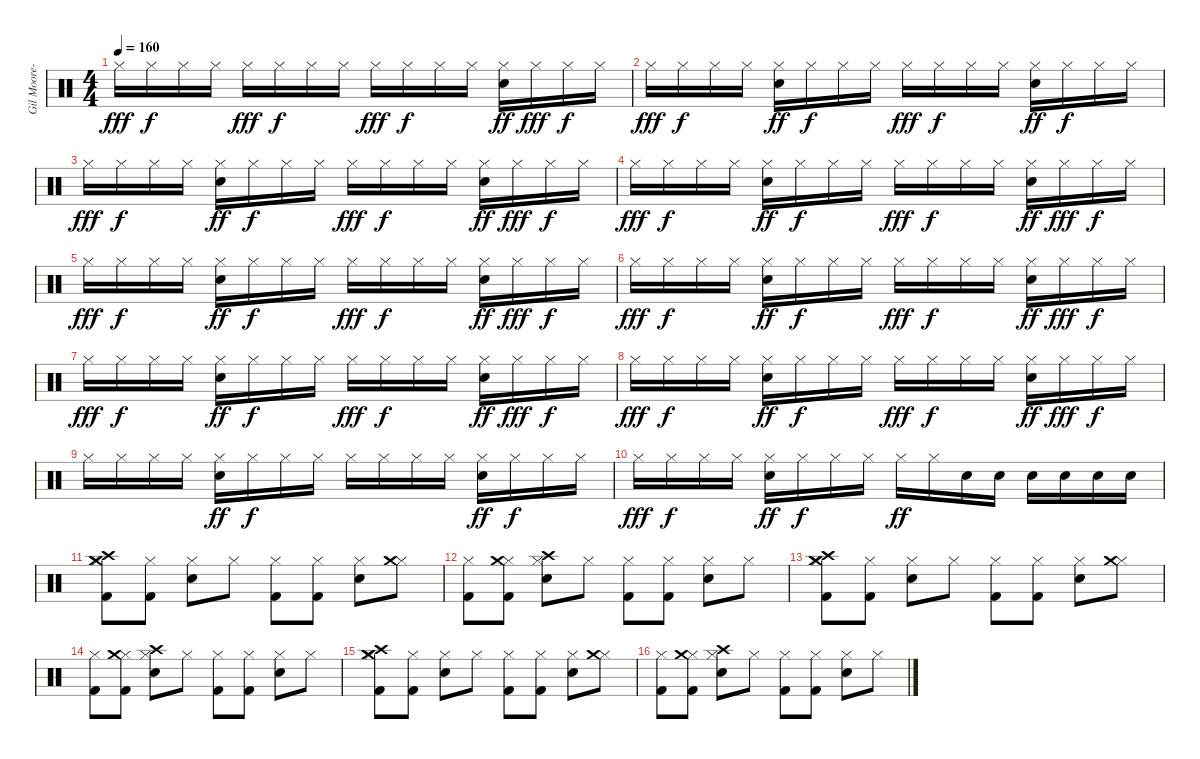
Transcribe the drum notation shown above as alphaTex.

\track ("Gil Moore-Drums n Vocals" "Gil Moore-") {instrument percussion}
\staff {score}
\articulation defaults
\ts (4 4)
\tempo 160
\clef neutral
\ks c "Hi-Hat (closed)".16{dy fff} "Hi-Hat (closed)".16{dy f} "Hi-Hat (closed)".16 "Hi-Hat (closed)".16 "Hi-Hat (closed)".16{dy fff} "Hi-Hat (closed)".16{dy f} "Hi-Hat (closed)".16 "Hi-Hat (closed)".16 "Hi-Hat (closed)".16{dy fff} "Hi-Hat (closed)".16{dy f} "Hi-Hat (closed)".16 "Hi-Hat (closed)".16
("Hi-Hat (closed)" "Electric Snare (hit)").16{dy ff} "Hi-Hat (closed)".16{dy fff} "Hi-Hat (closed)".16{dy f} "Hi-Hat (closed)".16 |
"Hi-Hat (closed)".16{dy fff} "Hi-Hat (closed)".16{dy f} "Hi-Hat (closed)".16 "Hi-Hat (closed)".16 ("Hi-Hat (closed)" "Electric Snare (hit)").16{dy ff} "Hi-Hat (closed)".16{dy f} "Hi-Hat (closed)".16 "Hi-Hat (closed)".16 "Hi-Hat (closed)".16{dy fff} "Hi-Hat (closed)".16{dy f} "Hi-Hat (closed)".16 "Hi-Hat (closed)".16 ("Hi-Hat (closed)" "Electric Snare (hit)").16{dy ff} "Hi-Hat (closed)".16{dy f} "Hi-Hat (closed)".16 "Hi-Hat (closed)".16 |
"Hi-Hat (closed)".16{dy fff} "Hi-Hat (closed)".16{dy f} "Hi-Hat (closed)".16 "Hi-Hat (closed)".16 ("Hi-Hat (closed)" "Electric Snare (hit)").16{dy ff} "Hi-Hat (closed)".16{dy f} "Hi-Hat (closed)".16 "Hi-Hat (closed)".16 "Hi-Hat (closed)".16{dy fff} "Hi-Hat (closed)".16{dy f} "Hi-Hat (closed)".16 "Hi-Hat (closed)".16 ("Hi-Hat (closed)" "Electric Snare (hit)").16{dy ff} "Hi-Hat (closed)".16{dy fff} "Hi-Hat (closed)".16{dy f} "Hi-Hat (closed)".16 |
"Hi-Hat (closed)".16{dy fff} "Hi-Hat (closed)".16{dy f} "Hi-Hat (closed)".16 "Hi-Hat (closed)".16 ("Hi-Hat (closed)" "Electric Snare (hit)").16{dy ff} "Hi-Hat (closed)".16{dy f} "Hi-Hat (closed)".16 "Hi-Hat (closed)".16 "Hi-Hat (closed)".16{dy fff} "Hi-Hat (closed)".16{dy f} "Hi-Hat (closed)".16 "Hi-Hat (closed)".16 ("Hi-Hat (closed)" "Electric Snare (hit)").16{dy ff} "Hi-Hat (closed)".16{dy fff} "Hi-Hat (closed)".16{dy f} "Hi-Hat (closed)".16 |
"Hi-Hat (closed)".16{dy fff} "Hi-Hat (closed)".16{dy f} "Hi-Hat (closed)".16 "Hi-Hat (closed)".16 ("Hi-Hat (closed)" "Electric Snare (hit)").16{dy ff} "Hi-Hat (closed)".16{dy f} "Hi-Hat (closed)".16 "Hi-Hat (closed)".16 "Hi-Hat (closed)".16{dy fff} "Hi-Hat (closed)".16{dy f} "Hi-Hat (closed)".16 "Hi-Hat (closed)".16 ("Hi-Hat (closed)" "Electric Snare (hit)").16{dy ff} "Hi-Hat (closed)".16{dy fff} "Hi-Hat (closed)".16{dy f} "Hi-Hat (closed)".16 |
"Hi-Hat (closed)".16{dy fff} "Hi-Hat (closed)".16{dy f} "Hi-Hat (closed)".16 "Hi-Hat (closed)".16 ("Hi-Hat (closed)" "Electric Snare (hit)").16{dy ff} "Hi-Hat (closed)".16{dy f} "Hi-Hat (closed)".16 "Hi-Hat (closed)".16 "Hi-Hat (closed)".16{dy fff} "Hi-Hat (closed)".16{dy f} "Hi-Hat (closed)".16 "Hi-Hat (closed)".16 ("Hi-Hat (closed)" "Electric Snare (hit)").16{dy ff} "Hi-Hat (closed)".16{dy fff} "Hi-Hat (closed)".16{dy f} "Hi-Hat (closed)".16 |
"Hi-Hat (closed)".16{dy fff} "Hi-Hat (closed)".16{dy f} "Hi-Hat (closed)".16 "Hi-Hat (closed)".16 ("Hi-Hat (closed)" "Electric Snare (hit)").16{dy ff} "Hi-Hat (closed)".16{dy f} "Hi-Hat (closed)".16 "Hi-Hat (closed)".16 "Hi-Hat (closed)".16{dy fff} "Hi-Hat (closed)".16{dy f} "Hi-Hat (closed)".16 "Hi-Hat (closed)".16 ("Hi-Hat (closed)" "Electric Snare (hit)").16{dy ff} "Hi-Hat (closed)".16{dy fff} "Hi-Hat (closed)".16{dy f} "Hi-Hat (closed)".16 |
"Hi-Hat (closed)".16{dy fff} "Hi-Hat (closed)".16{dy f} "Hi-Hat (closed)".16 "Hi-Hat (closed)".16 ("Hi-Hat (closed)" "Electric Snare (hit)").16{dy ff} "Hi-Hat (closed)".16{dy f} "Hi-Hat (closed)".16 "Hi-Hat (closed)".16 "Hi-Hat (closed)".16{dy fff} "Hi-Hat (closed)".16{dy f} "Hi-Hat (closed)".16 "Hi-Hat (closed)".16 ("Hi-Hat (closed)" "Electric Snare (hit)").16{dy ff} "Hi-Hat (closed)".16{dy fff} "Hi-Hat (closed)".16{dy f} "Hi-Hat (closed)".16 |
"Hi-Hat (closed)".16 "Hi-Hat (closed)".16 "Hi-Hat (closed)".16 "Hi-Hat (closed)".16 ("Hi-Hat (closed)" "Electric Snare (hit)").16{dy ff} "Hi-Hat (closed)".16{dy f} "Hi-Hat (closed)".16 "Hi-Hat (closed)".16 "Hi-Hat (closed)".16 "Hi-Hat (closed)".16 "Hi-Hat (closed)".16 "Hi-Hat (closed)".16 ("Hi-Hat (closed)" "Electric Snare (hit)").16{dy ff} "Hi-Hat (closed)".16{dy f} "Hi-Hat (closed)".16 "Hi-Hat (closed)".16 |
"Hi-Hat (closed)".16{dy fff} "Hi-Hat (closed)".16{dy f} "Hi-Hat (closed)".16 "Hi-Hat (closed)".16 ("Hi-Hat (closed)" "Electric Snare (hit)").16{dy ff} "Hi-Hat (closed)".16{dy f} "Hi-Hat (closed)".16 "Hi-Hat (closed)".16 "Hi-Hat (closed)".16{dy ff} "Hi-Hat (closed)".16 "Electric Snare (hit)".16 "Electric Snare (hit)".16 "Electric Snare (hit)".16 "Electric Snare (hit)".16 "Electric Snare (hit)".16 "Electric Snare (hit)".16 |
("Kick (hit) 2" "Hi-Hat (closed)" "Crash high (hit)" "Crash medium (hit)").8 ("Kick (hit) 2" "Hi-Hat (closed)").8 ("Electric Snare (hit)" "Hi-Hat (closed)").8 "Hi-Hat (closed)".8 ("Kick (hit) 2" "Hi-Hat (closed)").8 ("Kick (hit) 2" "Hi-Hat (closed)").8 ("Electric Snare (hit)" "Hi-Hat (closed)").8 ("Hi-Hat (closed)" "Crash medium (hit)").8 |
("Kick (hit) 2" "Hi-Hat (closed)").8 ("Kick (hit) 2" "Hi-Hat (closed)" "Crash medium (hit)").8 ("Electric Snare (hit)" "Hi-Hat (closed)" "Crash high (hit)").8 "Hi-Hat (closed)".8 ("Kick (hit) 2" "Hi-Hat (closed)").8 ("Kick (hit) 2" "Hi-Hat (closed)").8 ("Electric Snare (hit)" "Hi-Hat (closed)").8 "Hi-Hat (closed)".8 |
("Kick (hit) 2" "Hi-Hat (closed)" "Crash high (hit)" "Crash medium (hit)").8 ("Kick (hit) 2" "Hi-Hat (closed)").8 ("Electric Snare (hit)" "Hi-Hat (closed)").8 "Hi-Hat (closed)".8 ("Kick (hit) 2" "Hi-Hat (closed)").8 ("Kick (hit) 2" "Hi-Hat (closed)").8 ("Electric Snare (hit)" "Hi-Hat (closed)").8 ("Hi-Hat (closed)" "Crash medium (hit)").8 |
("Kick (hit) 2" "Hi-Hat (closed)").8 ("Kick (hit) 2" "Hi-Hat (closed)" "Crash medium (hit)").8 ("Electric Snare (hit)" "Hi-Hat (closed)" "Crash high (hit)").8 "Hi-Hat (closed)".8 ("Kick (hit) 2" "Hi-Hat (closed)").8 ("Kick (hit) 2" "Hi-Hat (closed)").8 ("Electric Snare (hit)" "Hi-Hat (closed)").8 "Hi-Hat (closed)".8 |
("Kick (hit) 2" "Hi-Hat (closed)" "Crash high (hit)" "Crash medium (hit)").8 ("Kick (hit) 2" "Hi-Hat (closed)").8 ("Electric Snare (hit)" "Hi-Hat (closed)").8 "Hi-Hat (closed)".8 ("Kick (hit) 2" "Hi-Hat (closed)").8 ("Kick (hit) 2" "Hi-Hat (closed)").8 ("Electric Snare (hit)" "Hi-Hat (closed)").8 ("Hi-Hat (closed)" "Crash medium (hit)").8 |
("Kick (hit) 2" "Hi-Hat (closed)").8 ("Kick (hit) 2" "Hi-Hat (closed)" "Crash medium (hit)").8 ("Electric Snare (hit)" "Hi-Hat (closed)" "Crash high (hit)").8 "Hi-Hat (closed)".8 ("Kick (hit) 2" "Hi-Hat (closed)").8 ("Kick (hit) 2" "Hi-Hat (closed)").8 ("Electric Snare (hit)" "Hi-Hat (closed)").8 "Hi-Hat (closed)".8
